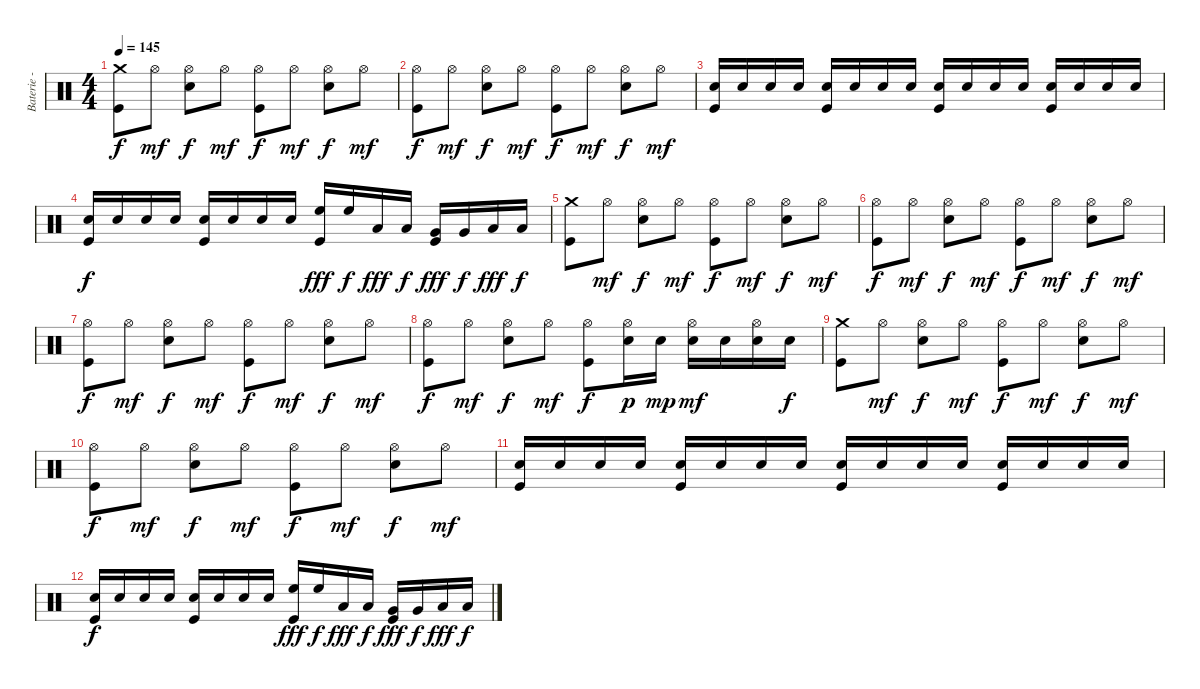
\track ("Baterie - Alex" "Baterie - ") {instrument percussion}
\staff {score}
\articulation defaults
\ts (4 4)
\tempo 145
\clef neutral
\ks c
("Crash medium (hit)" "Kick (hit)").8{dy f} "Hi-Hat (open)".8{dy mf} ("Hi-Hat (open)" "Electric Snare (hit)").8{dy f} "Hi-Hat (open)".8{dy mf} ("Hi-Hat (open)" "Kick (hit)").8{dy f} "Hi-Hat (open)".8{dy mf} ("Hi-Hat (open)" "Electric Snare (hit)").8{dy f} "Hi-Hat (open)".8{dy mf} |
("Hi-Hat (open)" "Kick (hit)").8{dy f} "Hi-Hat (open)".8{dy mf} ("Hi-Hat (open)" "Electric Snare (hit)").8{dy f} "Hi-Hat (open)".8{dy mf} ("Hi-Hat (open)" "Kick (hit)").8{dy f} "Hi-Hat (open)".8{dy mf} ("Hi-Hat (open)" "Electric Snare (hit)").8{dy f} "Hi-Hat (open)".8{dy mf} |
("Electric Snare (hit)" "Kick (hit)").16 "Electric Snare (hit)".16 "Electric Snare (hit)".16 "Electric Snare (hit)".16 ("Electric Snare (hit)" "Kick (hit)").16 "Electric Snare (hit)".16 "Electric Snare (hit)".16 "Electric Snare (hit)".16 ("Electric Snare (hit)" "Kick (hit)").16 "Electric Snare (hit)".16 "Electric Snare (hit)".16 "Electric Snare (hit)".16 ("Electric Snare (hit)" "Kick (hit)").16 "Electric Snare (hit)".16 "Electric Snare (hit)".16 "Electric Snare (hit)".16 |
("Electric Snare (hit)" "Kick (hit)").16{dy f} "Electric Snare (hit)".16 "Electric Snare (hit)".16 "Electric Snare (hit)".16 ("Electric Snare (hit)" "Kick (hit)").16 "Electric Snare (hit)".16 "Electric Snare (hit)".16 "Electric Snare (hit)".16 ("High Floor Tom (hit)" "Kick (hit)").16{dy fff} "High Floor Tom (hit)".16{dy f} "Low Tom (hit)".16{dy fff} "Low Tom (hit)".16{dy f} ("Very Low Tom (hit)" "Kick (hit)").16{dy fff} "Very Low Tom (hit)".16{dy f} "Low Floor Tom (hit)".16{dy fff} "Low Floor Tom (hit)".16{dy f} |
("Crash medium (hit)" "Kick (hit)").8 "Hi-Hat (open)".8{dy mf} ("Hi-Hat (open)" "Electric Snare (hit)").8{dy f} "Hi-Hat (open)".8{dy mf} ("Hi-Hat (open)" "Kick (hit)").8{dy f} "Hi-Hat (open)".8{dy mf} ("Hi-Hat (open)" "Electric Snare (hit)").8{dy f} "Hi-Hat (open)".8{dy mf} |
("Hi-Hat (open)" "Kick (hit)").8{dy f} "Hi-Hat (open)".8{dy mf} ("Hi-Hat (open)" "Electric Snare (hit)").8{dy f} "Hi-Hat (open)".8{dy mf} ("Hi-Hat (open)" "Kick (hit)").8{dy f} "Hi-Hat (open)".8{dy mf} ("Hi-Hat (open)" "Electric Snare (hit)").8{dy f} "Hi-Hat (open)".8{dy mf} |
("Hi-Hat (open)" "Kick (hit)").8{dy f} "Hi-Hat (open)".8{dy mf} ("Hi-Hat (open)" "Electric Snare (hit)").8{dy f} "Hi-Hat (open)".8{dy mf} ("Hi-Hat (open)" "Kick (hit)").8{dy f} "Hi-Hat (open)".8{dy mf} ("Hi-Hat (open)" "Electric Snare (hit)").8{dy f} "Hi-Hat (open)".8{dy mf} |
("Hi-Hat (open)" "Kick (hit)").8{dy f} "Hi-Hat (open)".8{dy mf} ("Hi-Hat (open)" "Electric Snare (hit)").8{dy f} "Hi-Hat (open)".8{dy mf} ("Hi-Hat (open)" "Kick (hit)").8{dy f} ("Hi-Hat (open)" "Electric Snare (hit)").16{dy p} "Electric Snare (hit)".16{dy mp} ("Hi-Hat (open)" "Electric Snare (hit)").16{dy mf} "Electric Snare (hit)".16 ("Hi-Hat (open)" "Electric Snare (hit)").16 "Electric Snare (hit)".16{dy f} |
("Crash medium (hit)" "Kick (hit)").8 "Hi-Hat (open)".8{dy mf} ("Hi-Hat (open)" "Electric Snare (hit)").8{dy f} "Hi-Hat (open)".8{dy mf} ("Hi-Hat (open)" "Kick (hit)").8{dy f} "Hi-Hat (open)".8{dy mf} ("Hi-Hat (open)" "Electric Snare (hit)").8{dy f} "Hi-Hat (open)".8{dy mf} |
("Hi-Hat (open)" "Kick (hit)").8{dy f} "Hi-Hat (open)".8{dy mf} ("Hi-Hat (open)" "Electric Snare (hit)").8{dy f} "Hi-Hat (open)".8{dy mf} ("Hi-Hat (open)" "Kick (hit)").8{dy f} "Hi-Hat (open)".8{dy mf} ("Hi-Hat (open)" "Electric Snare (hit)").8{dy f} "Hi-Hat (open)".8{dy mf} |
("Electric Snare (hit)" "Kick (hit)").16 "Electric Snare (hit)".16 "Electric Snare (hit)".16 "Electric Snare (hit)".16 ("Electric Snare (hit)" "Kick (hit)").16 "Electric Snare (hit)".16 "Electric Snare (hit)".16 "Electric Snare (hit)".16 ("Electric Snare (hit)" "Kick (hit)").16 "Electric Snare (hit)".16 "Electric Snare (hit)".16 "Electric Snare (hit)".16 ("Electric Snare (hit)" "Kick (hit)").16 "Electric Snare (hit)".16 "Electric Snare (hit)".16 "Electric Snare (hit)".16 |
("Electric Snare (hit)" "Kick (hit)").16{dy f} "Electric Snare (hit)".16 "Electric Snare (hit)".16 "Electric Snare (hit)".16 ("Electric Snare (hit)" "Kick (hit)").16 "Electric Snare (hit)".16 "Electric Snare (hit)".16 "Electric Snare (hit)".16 ("High Floor Tom (hit)" "Kick (hit)").16{dy fff} "High Floor Tom (hit)".16{dy f} "Low Tom (hit)".16{dy fff} "Low Tom (hit)".16{dy f} ("Very Low Tom (hit)" "Kick (hit)").16{dy fff} "Very Low Tom (hit)".16{dy f} "Low Floor Tom (hit)".16{dy fff} "Low Floor Tom (hit)".16{dy f}
